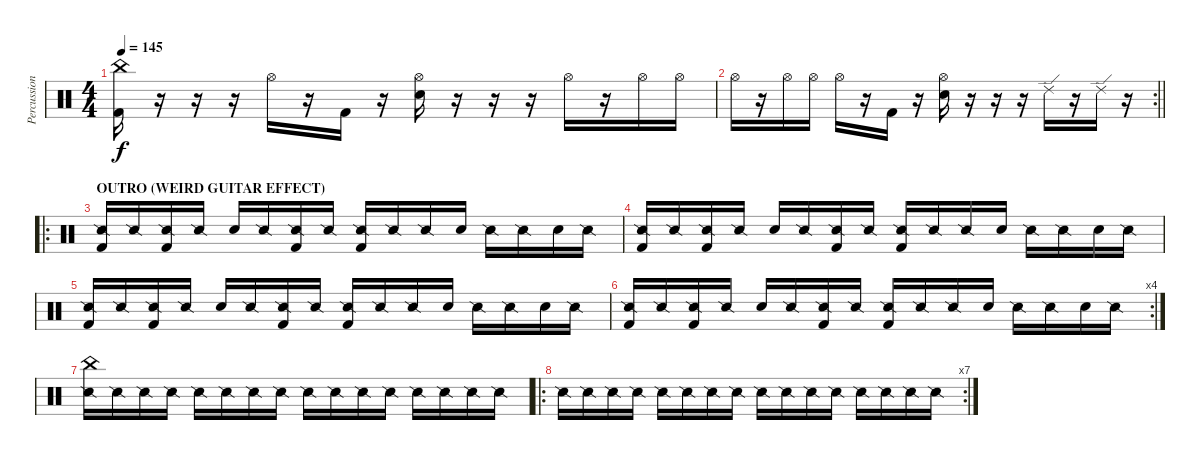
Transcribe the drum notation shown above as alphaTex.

\track ("Percussion" "Percussion") {instrument percussion}
\staff {score}
\articulation defaults
\ts (4 4)
\tempo 145
\clef neutral
\ks c
("Kick (hit) 2" "China (hit)").16{dy f} r.16 r.16 r.16 "Hi-Hat (open)".16 r.16 "Kick (hit) 2".16 r.16 ("Snare (hit) 2" "Hi-Hat (open)").16 r.16 r.16 r.16 "Hi-Hat (open)".16 r.16 "Hi-Hat (open)".16 "Hi-Hat (open)".16 |
\rc 2
\barLineRight lightlight "Hi-Hat (open)".16
r.16 "Hi-Hat (open)".16 "Hi-Hat (open)".16 "Hi-Hat (open)".16 r.16 "Kick (hit) 2".16 r.16 ("Snare (hit) 2" "Hi-Hat (open)").16 r.16 r.16 r.16 "Ride (edge) 2".16 r.16 "Ride (edge) 2".16 r.16 |
\ro
\section ("" "OUTRO (WEIRD GUITAR EFFECT)")
("Snare (side stick) 2" "Kick (hit) 2").16{volume 15} "Snare (side stick) 2".16 ("Snare (side stick) 2" "Kick (hit) 2").16 "Snare (side stick) 2".16 "Snare (hit) 2".16 "Snare (side stick) 2".16 ("Snare (side stick) 2" "Kick (hit) 2").16 "Snare (side stick) 2".16 ("Snare (side stick) 2" "Kick (hit) 2").16 "Snare (side stick) 2".16 "Snare (side stick) 2".16 "Snare (hit) 2".16 "Snare (side stick) 2".16 "Snare (side stick) 2".16 "Snare (hit) 2".16 "Snare (side stick) 2".16 |
("Snare (side stick) 2" "Kick (hit) 2").16 "Snare (side stick) 2".16 ("Snare (side stick) 2" "Kick (hit) 2").16 "Snare (side stick) 2".16 "Snare (hit) 2".16 "Snare (side stick) 2".16 ("Snare (side stick) 2" "Kick (hit) 2").16 "Snare (side stick) 2".16 ("Snare (side stick) 2" "Kick (hit) 2").16 "Snare (side stick) 2".16 "Snare (side stick) 2".16 "Snare (hit) 2".16 "Snare (side stick) 2".16 "Snare (side stick) 2".16 "Snare (hit) 2".16 "Snare (side stick) 2".16 |
("Snare (side stick) 2" "Kick (hit) 2").16 "Snare (side stick) 2".16 ("Snare (side stick) 2" "Kick (hit) 2").16 "Snare (side stick) 2".16 "Snare (hit) 2".16 "Snare (side stick) 2".16 ("Snare (side stick) 2" "Kick (hit) 2").16 "Snare (side stick) 2".16 ("Snare (side stick) 2" "Kick (hit) 2").16 "Snare (side stick) 2".16 "Snare (side stick) 2".16 "Snare (hit) 2".16 "Snare (side stick) 2".16 "Snare (side stick) 2".16 "Snare (hit) 2".16 "Snare (side stick) 2".16 |
\rc 4
("Snare (side stick) 2" "Kick (hit) 2").16 "Snare (side stick) 2".16 ("Snare (side stick) 2" "Kick (hit) 2").16 "Snare (side stick) 2".16 "Snare (hit) 2".16 "Snare (side stick) 2".16 ("Snare (side stick) 2" "Kick (hit) 2").16 "Snare (side stick) 2".16 ("Snare (side stick) 2" "Kick (hit) 2").16 "Snare (side stick) 2".16 "Snare (side stick) 2".16 "Snare (hit) 2".16 "Snare (side stick) 2".16 "Snare (side stick) 2".16 "Snare (hit) 2".16 "Snare (side stick) 2".16 |
("Snare (side stick) 2" "China (hit)").16{volume 8 balance 16} "Snare (side stick) 2".16 "Snare (side stick) 2".16 "Snare (side stick) 2".16 "Snare (side stick) 2".16 "Snare (side stick) 2".16 "Snare (side stick) 2".16 "Snare (side stick) 2".16 "Snare (side stick) 2".16{volume 8 balance 0} "Snare (side stick) 2".16 "Snare (side stick) 2".16 "Snare (side stick) 2".16 "Snare (side stick) 2".16 "Snare (side stick) 2".16 "Snare (side stick) 2".16 "Snare (side stick) 2".16 |
\ro
\rc 7 "Snare (side stick) 2".16{volume 8 balance 16} "Snare (side stick) 2".16 "Snare (side stick) 2".16 "Snare (side stick) 2".16 "Snare (side stick) 2".16 "Snare (side stick) 2".16 "Snare (side stick) 2".16 "Snare (side stick) 2".16 "Snare (side stick) 2".16{volume 8 balance 0} "Snare (side stick) 2".16 "Snare (side stick) 2".16 "Snare (side stick) 2".16 "Snare (side stick) 2".16 "Snare (side stick) 2".16 "Snare (side stick) 2".16 "Snare (side stick) 2".16
